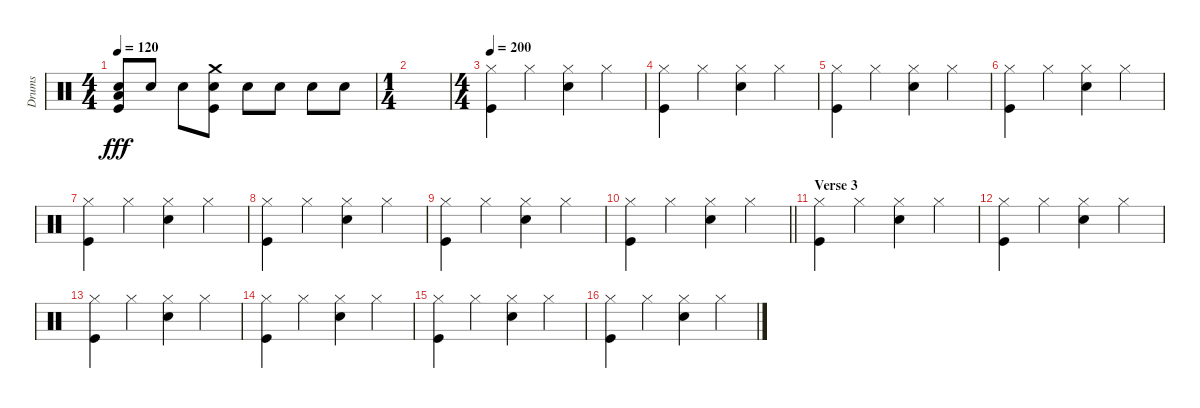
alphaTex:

\track ("Drums" "Drums") {instrument percussion}
\staff {score}
\articulation defaults
\ts (4 4)
\tempo 120
\clef neutral
\ks c
("Snare (hit) 2" "Low Floor Tom (hit)" "Kick (hit)").8{dy fff} "Snare (hit) 2".8 "Snare (hit) 2".8 ("Snare (hit) 2" "Crash medium (hit)" "Kick (hit)").8 "Snare (hit) 2".8 "Snare (hit) 2".8 "Snare (hit) 2".8 "Snare (hit) 2".8 |
\ts (1 4)
|
\ts (4 4)
\tempo 200
("Hi-Hat (closed)" "Kick (hit)").4 "Hi-Hat (closed)".4 ("Hi-Hat (closed)" "Snare (hit) 2").4 "Hi-Hat (closed)".4 |
("Hi-Hat (closed)" "Kick (hit)").4 "Hi-Hat (closed)".4 ("Hi-Hat (closed)" "Snare (hit) 2").4 "Hi-Hat (closed)".4 |
("Hi-Hat (closed)" "Kick (hit)").4 "Hi-Hat (closed)".4 ("Hi-Hat (closed)" "Snare (hit) 2").4 "Hi-Hat (closed)".4 |
("Hi-Hat (closed)" "Kick (hit)").4 "Hi-Hat (closed)".4 ("Hi-Hat (closed)" "Snare (hit) 2").4 "Hi-Hat (closed)".4 |
("Hi-Hat (closed)" "Kick (hit)").4 "Hi-Hat (closed)".4 ("Hi-Hat (closed)" "Snare (hit) 2").4 "Hi-Hat (closed)".4 |
("Hi-Hat (closed)" "Kick (hit)").4 "Hi-Hat (closed)".4 ("Hi-Hat (closed)" "Snare (hit) 2").4 "Hi-Hat (closed)".4 |
("Hi-Hat (closed)" "Kick (hit)").4 "Hi-Hat (closed)".4 ("Hi-Hat (closed)" "Snare (hit) 2").4 "Hi-Hat (closed)".4 |
\barLineRight lightlight
("Hi-Hat (closed)" "Kick (hit)").4 "Hi-Hat (closed)".4 ("Hi-Hat (closed)" "Snare (hit) 2").4 "Hi-Hat (closed)".4 |
\section ("" "Verse 3")
("Hi-Hat (closed)" "Kick (hit)").4 "Hi-Hat (closed)".4 ("Hi-Hat (closed)" "Snare (hit) 2").4 "Hi-Hat (closed)".4 |
("Hi-Hat (closed)" "Kick (hit)").4 "Hi-Hat (closed)".4 ("Hi-Hat (closed)" "Snare (hit) 2").4 "Hi-Hat (closed)".4 |
("Hi-Hat (closed)" "Kick (hit)").4 "Hi-Hat (closed)".4 ("Hi-Hat (closed)" "Snare (hit) 2").4 "Hi-Hat (closed)".4 |
("Hi-Hat (closed)" "Kick (hit)").4 "Hi-Hat (closed)".4 ("Hi-Hat (closed)" "Snare (hit) 2").4 "Hi-Hat (closed)".4 |
("Hi-Hat (closed)" "Kick (hit)").4 "Hi-Hat (closed)".4 ("Hi-Hat (closed)" "Snare (hit) 2").4 "Hi-Hat (closed)".4 |
("Hi-Hat (closed)" "Kick (hit)").4 "Hi-Hat (closed)".4 ("Hi-Hat (closed)" "Snare (hit) 2").4 "Hi-Hat (closed)".4
